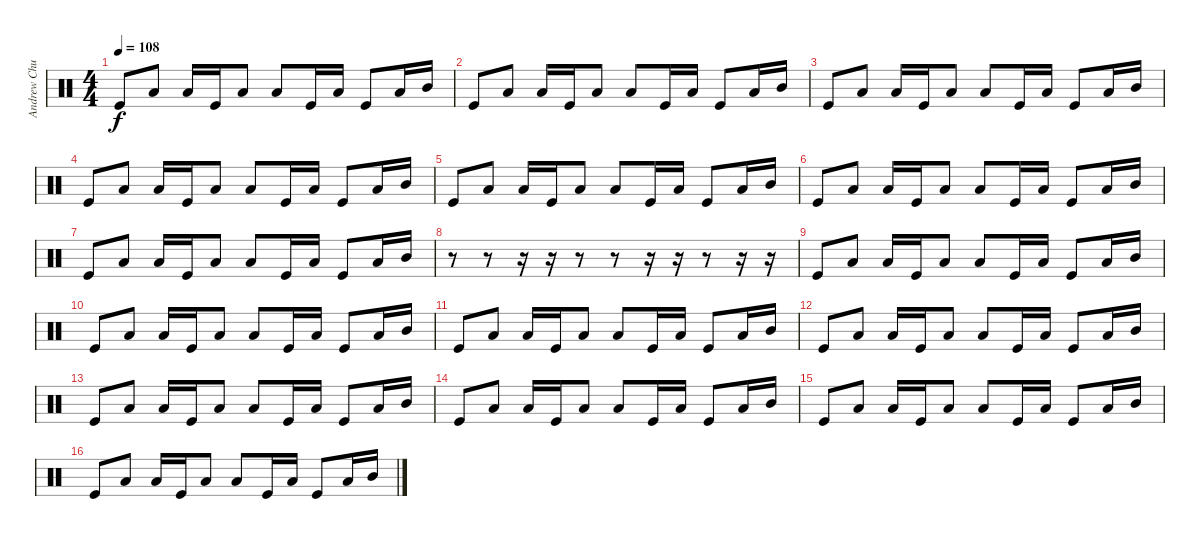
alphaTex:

\track ("Andrew Chudy - Bassdrum" "Andrew Chu") {instrument percussion}
\staff {score}
\articulation defaults
\ts (4 4)
\tempo 108
\clef neutral
\ks c "Kick (hit)".8{dy f} "Low Floor Tom (hit)".8 "Low Floor Tom (hit)".16 "Kick (hit)".16 "Low Floor Tom (hit)".8 "Low Floor Tom (hit)".8 "Kick (hit)".16 "Low Floor Tom (hit)".16 "Kick (hit)".8 "Low Floor Tom (hit)".16 "Mid Tom (hit)".16
|
"Kick (hit)".8 "Low Floor Tom (hit)".8 "Low Floor Tom (hit)".16 "Kick (hit)".16 "Low Floor Tom (hit)".8 "Low Floor Tom (hit)".8 "Kick (hit)".16 "Low Floor Tom (hit)".16 "Kick (hit)".8 "Low Floor Tom (hit)".16 "Mid Tom (hit)".16 |
"Kick (hit)".8 "Low Floor Tom (hit)".8 "Low Floor Tom (hit)".16 "Kick (hit)".16 "Low Floor Tom (hit)".8 "Low Floor Tom (hit)".8 "Kick (hit)".16 "Low Floor Tom (hit)".16 "Kick (hit)".8 "Low Floor Tom (hit)".16 "Mid Tom (hit)".16 |
"Kick (hit)".8 "Low Floor Tom (hit)".8 "Low Floor Tom (hit)".16 "Kick (hit)".16 "Low Floor Tom (hit)".8 "Low Floor Tom (hit)".8 "Kick (hit)".16 "Low Floor Tom (hit)".16 "Kick (hit)".8 "Low Floor Tom (hit)".16 "Mid Tom (hit)".16 |
"Kick (hit)".8 "Low Floor Tom (hit)".8 "Low Floor Tom (hit)".16 "Kick (hit)".16 "Low Floor Tom (hit)".8 "Low Floor Tom (hit)".8 "Kick (hit)".16 "Low Floor Tom (hit)".16 "Kick (hit)".8 "Low Floor Tom (hit)".16 "Mid Tom (hit)".16 |
"Kick (hit)".8 "Low Floor Tom (hit)".8 "Low Floor Tom (hit)".16 "Kick (hit)".16 "Low Floor Tom (hit)".8 "Low Floor Tom (hit)".8 "Kick (hit)".16 "Low Floor Tom (hit)".16 "Kick (hit)".8 "Low Floor Tom (hit)".16 "Mid Tom (hit)".16 |
"Kick (hit)".8 "Low Floor Tom (hit)".8 "Low Floor Tom (hit)".16 "Kick (hit)".16 "Low Floor Tom (hit)".8 "Low Floor Tom (hit)".8 "Kick (hit)".16 "Low Floor Tom (hit)".16 "Kick (hit)".8 "Low Floor Tom (hit)".16 "Mid Tom (hit)".16 |
r.8 r.8 r.16 r.16 r.8 r.8 r.16 r.16 r.8 r.16 r.16 |
"Kick (hit)".8 "Low Floor Tom (hit)".8 "Low Floor Tom (hit)".16 "Kick (hit)".16 "Low Floor Tom (hit)".8 "Low Floor Tom (hit)".8 "Kick (hit)".16 "Low Floor Tom (hit)".16 "Kick (hit)".8 "Low Floor Tom (hit)".16 "Mid Tom (hit)".16 |
"Kick (hit)".8 "Low Floor Tom (hit)".8 "Low Floor Tom (hit)".16 "Kick (hit)".16 "Low Floor Tom (hit)".8 "Low Floor Tom (hit)".8 "Kick (hit)".16 "Low Floor Tom (hit)".16 "Kick (hit)".8 "Low Floor Tom (hit)".16 "Mid Tom (hit)".16 |
"Kick (hit)".8 "Low Floor Tom (hit)".8 "Low Floor Tom (hit)".16 "Kick (hit)".16 "Low Floor Tom (hit)".8 "Low Floor Tom (hit)".8 "Kick (hit)".16 "Low Floor Tom (hit)".16 "Kick (hit)".8 "Low Floor Tom (hit)".16 "Mid Tom (hit)".16 |
"Kick (hit)".8 "Low Floor Tom (hit)".8 "Low Floor Tom (hit)".16 "Kick (hit)".16 "Low Floor Tom (hit)".8 "Low Floor Tom (hit)".8 "Kick (hit)".16 "Low Floor Tom (hit)".16 "Kick (hit)".8 "Low Floor Tom (hit)".16 "Mid Tom (hit)".16 |
"Kick (hit)".8 "Low Floor Tom (hit)".8 "Low Floor Tom (hit)".16 "Kick (hit)".16 "Low Floor Tom (hit)".8 "Low Floor Tom (hit)".8 "Kick (hit)".16 "Low Floor Tom (hit)".16 "Kick (hit)".8 "Low Floor Tom (hit)".16 "Mid Tom (hit)".16 |
"Kick (hit)".8 "Low Floor Tom (hit)".8 "Low Floor Tom (hit)".16 "Kick (hit)".16 "Low Floor Tom (hit)".8 "Low Floor Tom (hit)".8 "Kick (hit)".16 "Low Floor Tom (hit)".16 "Kick (hit)".8 "Low Floor Tom (hit)".16 "Mid Tom (hit)".16 |
"Kick (hit)".8 "Low Floor Tom (hit)".8 "Low Floor Tom (hit)".16 "Kick (hit)".16 "Low Floor Tom (hit)".8 "Low Floor Tom (hit)".8 "Kick (hit)".16 "Low Floor Tom (hit)".16 "Kick (hit)".8 "Low Floor Tom (hit)".16 "Mid Tom (hit)".16 |
"Kick (hit)".8 "Low Floor Tom (hit)".8 "Low Floor Tom (hit)".16 "Kick (hit)".16 "Low Floor Tom (hit)".8 "Low Floor Tom (hit)".8 "Kick (hit)".16 "Low Floor Tom (hit)".16 "Kick (hit)".8 "Low Floor Tom (hit)".16 "Mid Tom (hit)".16
